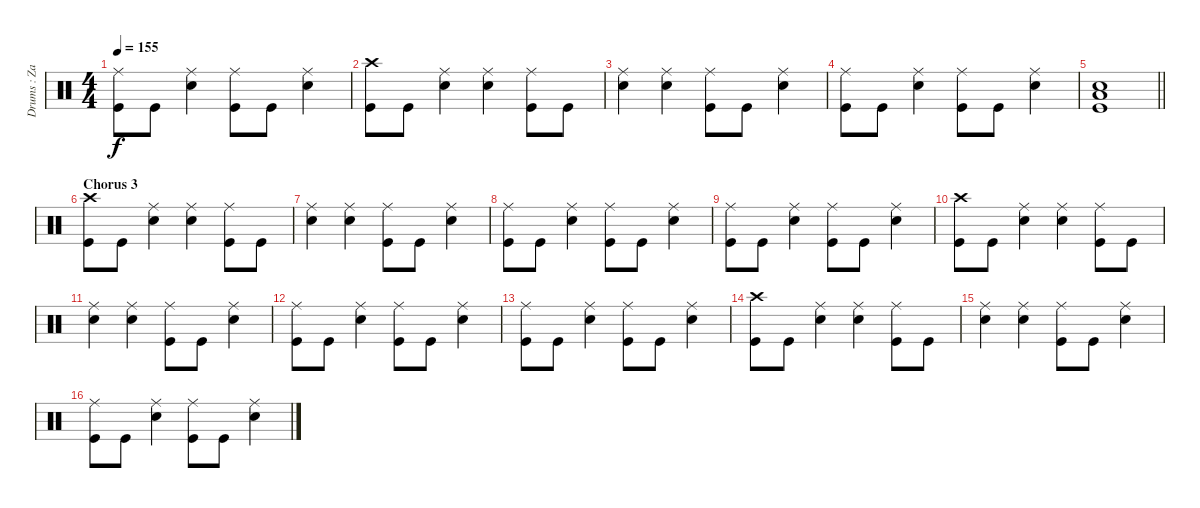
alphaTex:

\track ("Drums : Zach Lind" "Drums : Za") {instrument percussion}
\staff {score}
\articulation defaults
\ts (4 4)
\tempo 155
\clef neutral
\ks c
("Ride (middle)" "Kick (hit)").8{dy f} "Kick (hit)".8 ("Ride (middle)" "Snare (hit) 2").4 ("Ride (middle)" "Kick (hit)").8 "Kick (hit)".8 ("Ride (middle)" "Snare (hit) 2").4 |
("Crash high (hit)" "Kick (hit)").8 "Kick (hit)".8 ("Ride (middle)" "Snare (hit) 2").4 ("Ride (middle)" "Snare (hit) 2").4 ("Ride (middle)" "Kick (hit)").8 "Kick (hit)".8 |
("Ride (middle)" "Snare (hit) 2").4 ("Ride (middle)" "Snare (hit) 2").4 ("Ride (middle)" "Kick (hit)").8 "Kick (hit)".8 ("Ride (middle)" "Snare (hit) 2").4 |
("Ride (middle)" "Kick (hit)").8 "Kick (hit)".8 ("Ride (middle)" "Snare (hit) 2").4 ("Ride (middle)" "Kick (hit)").8 "Kick (hit)".8 ("Ride (middle)" "Snare (hit) 2").4 |
\barLineRight lightlight
("Snare (hit) 2" "Low Floor Tom (hit)" "Kick (hit)").1 |
\section ("" "Chorus 3")
("Crash high (hit)" "Kick (hit)").8 "Kick (hit)".8 ("Ride (middle)" "Snare (hit) 2").4 ("Ride (middle)" "Snare (hit) 2").4 ("Ride (middle)" "Kick (hit)").8 "Kick (hit)".8 |
("Ride (middle)" "Snare (hit) 2").4 ("Ride (middle)" "Snare (hit) 2").4 ("Ride (middle)" "Kick (hit)").8 "Kick (hit)".8 ("Ride (middle)" "Snare (hit) 2").4 |
("Ride (middle)" "Kick (hit)").8 "Kick (hit)".8 ("Ride (middle)" "Snare (hit) 2").4 ("Ride (middle)" "Kick (hit)").8 "Kick (hit)".8 ("Ride (middle)" "Snare (hit) 2").4 |
("Ride (middle)" "Kick (hit)").8 "Kick (hit)".8 ("Ride (middle)" "Snare (hit) 2").4 ("Ride (middle)" "Kick (hit)").8 "Kick (hit)".8 ("Ride (middle)" "Snare (hit) 2").4 |
("Crash high (hit)" "Kick (hit)").8 "Kick (hit)".8 ("Ride (middle)" "Snare (hit) 2").4 ("Ride (middle)" "Snare (hit) 2").4 ("Ride (middle)" "Kick (hit)").8 "Kick (hit)".8 |
("Ride (middle)" "Snare (hit) 2").4 ("Ride (middle)" "Snare (hit) 2").4 ("Ride (middle)" "Kick (hit)").8 "Kick (hit)".8 ("Ride (middle)" "Snare (hit) 2").4 |
("Ride (middle)" "Kick (hit)").8 "Kick (hit)".8 ("Ride (middle)" "Snare (hit) 2").4 ("Ride (middle)" "Kick (hit)").8 "Kick (hit)".8 ("Ride (middle)" "Snare (hit) 2").4 |
("Ride (middle)" "Kick (hit)").8 "Kick (hit)".8 ("Ride (middle)" "Snare (hit) 2").4 ("Ride (middle)" "Kick (hit)").8 "Kick (hit)".8 ("Ride (middle)" "Snare (hit) 2").4 |
("Crash high (hit)" "Kick (hit)").8 "Kick (hit)".8 ("Ride (middle)" "Snare (hit) 2").4 ("Ride (middle)" "Snare (hit) 2").4 ("Ride (middle)" "Kick (hit)").8 "Kick (hit)".8 |
("Ride (middle)" "Snare (hit) 2").4 ("Ride (middle)" "Snare (hit) 2").4 ("Ride (middle)" "Kick (hit)").8 "Kick (hit)".8 ("Ride (middle)" "Snare (hit) 2").4 |
("Ride (middle)" "Kick (hit)").8 "Kick (hit)".8 ("Ride (middle)" "Snare (hit) 2").4 ("Ride (middle)" "Kick (hit)").8 "Kick (hit)".8 ("Ride (middle)" "Snare (hit) 2").4
